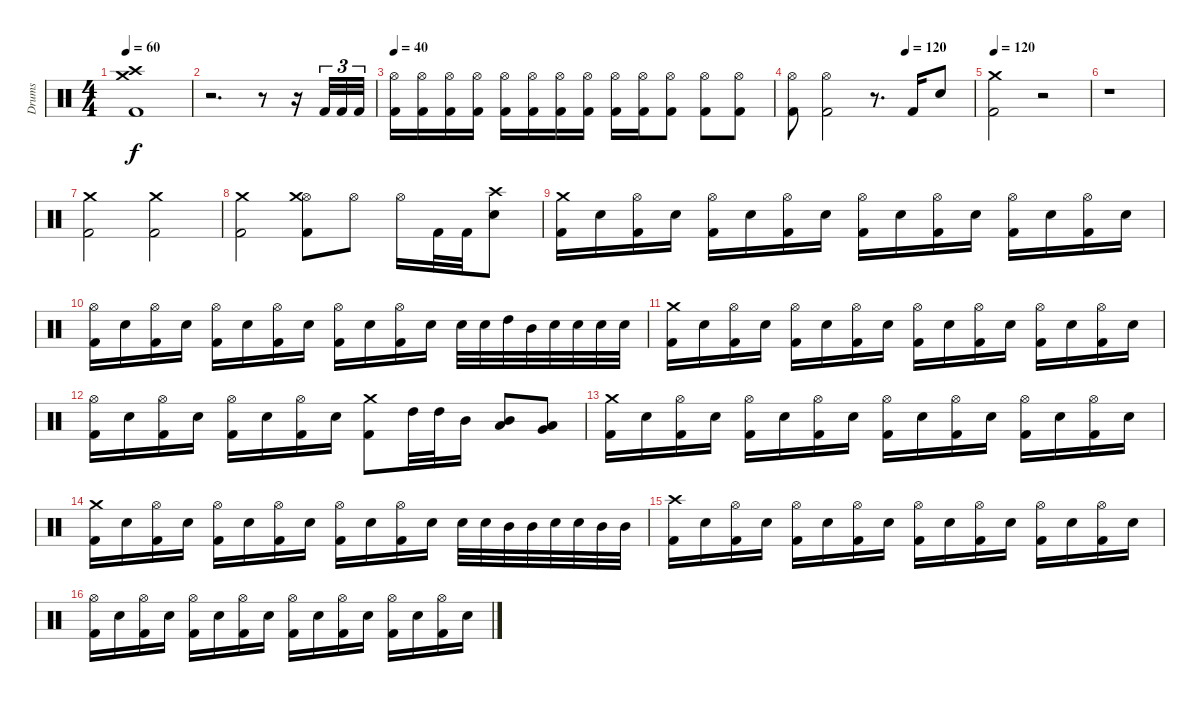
\track ("Drums" "Drums") {instrument percussion}
\staff {score}
\articulation defaults
\ts (4 4)
\tempo 60
\clef neutral
\ks c
("Kick (hit) 2" "Crash high (hit)" "Crash medium (hit)").1{dy f} |
r.2{d} r.8 r.16 "Kick (hit) 2".32{tu (3 2)} "Kick (hit) 2".32{tu (3 2)} "Kick (hit) 2".32{tu (3 2)} |
\tempo 40
("Kick (hit) 2" "Hi-Hat (open)").16 ("Kick (hit) 2" "Hi-Hat (open)").16 ("Kick (hit) 2" "Hi-Hat (open)").16 ("Kick (hit) 2" "Hi-Hat (open)").16 ("Kick (hit) 2" "Hi-Hat (open)").16 ("Kick (hit) 2" "Hi-Hat (open)").16 ("Kick (hit) 2" "Hi-Hat (open)").16 ("Kick (hit) 2" "Hi-Hat (open)").16 ("Kick (hit) 2" "Hi-Hat (open)").16 ("Kick (hit) 2" "Hi-Hat (open)").16 ("Kick (hit) 2" "Hi-Hat (open)").8 ("Kick (hit) 2" "Hi-Hat (open)").8 ("Kick (hit) 2" "Hi-Hat (open)").8 |
\tempo (120 0.625)
("Kick (hit) 2" "Hi-Hat (open)").8 ("Kick (hit) 2" "Hi-Hat (open)").2 r.8{d} "Kick (hit) 2".16 "Electric Snare (hit)".8 |
\tempo 120
("Kick (hit) 2" "Crash medium (hit)").2 r.2 |
r.1 |
("Kick (hit) 2" "Crash medium (hit)").2 ("Kick (hit) 2" "Crash medium (hit)").2 |
("Kick (hit) 2" "Crash medium (hit)").2 ("Kick (hit) 2" "Hi-Hat (open)" "Crash medium (hit)").8 "Hi-Hat (open)".8 "Hi-Hat (open)".16 "Kick (hit) 2".32 "Kick (hit) 2".32 ("Electric Snare (hit)" "Crash high (hit)").8 |
("Kick (hit) 2" "Crash medium (hit)").16 "Electric Snare (hit)".16 ("Kick (hit) 2" "Hi-Hat (open)").16 "Electric Snare (hit)".16 ("Kick (hit) 2" "Hi-Hat (open)").16 "Electric Snare (hit)".16 ("Kick (hit) 2" "Hi-Hat (open)").16 "Electric Snare (hit)".16 ("Kick (hit) 2" "Hi-Hat (open)").16 "Electric Snare (hit)".16 ("Kick (hit) 2" "Hi-Hat (open)").16 "Electric Snare (hit)".16 ("Kick (hit) 2" "Hi-Hat (open)").16 "Electric Snare (hit)".16 ("Kick (hit) 2" "Hi-Hat (open)").16 "Electric Snare (hit)".16 |
("Kick (hit) 2" "Hi-Hat (open)").16 "Electric Snare (hit)".16 ("Kick (hit) 2" "Hi-Hat (open)").16 "Electric Snare (hit)".16 ("Kick (hit) 2" "Hi-Hat (open)").16 "Electric Snare (hit)".16 ("Kick (hit) 2" "Hi-Hat (open)").16 "Electric Snare (hit)".16 ("Kick (hit) 2" "Hi-Hat (open)").16 "Electric Snare (hit)".16 ("Kick (hit) 2" "Hi-Hat (open)").16 "Electric Snare (hit)".16 "Electric Snare (hit)".32 "Electric Snare (hit)".32 "High Tom (hit)".32 "Mid Tom (hit)".32 "Electric Snare (hit)".32 "Electric Snare (hit)".32 "Electric Snare (hit)".32 "Electric Snare (hit)".32 |
("Kick (hit) 2" "Crash medium (hit)").16 "Electric Snare (hit)".16 ("Kick (hit) 2" "Hi-Hat (open)").16 "Electric Snare (hit)".16 ("Kick (hit) 2" "Hi-Hat (open)").16 "Electric Snare (hit)".16 ("Kick (hit) 2" "Hi-Hat (open)").16 "Electric Snare (hit)".16 ("Kick (hit) 2" "Hi-Hat (open)").16 "Electric Snare (hit)".16 ("Kick (hit) 2" "Hi-Hat (open)").16 "Electric Snare (hit)".16 ("Kick (hit) 2" "Hi-Hat (open)").16 "Electric Snare (hit)".16 ("Kick (hit) 2" "Hi-Hat (open)").16 "Electric Snare (hit)".16 |
("Kick (hit) 2" "Hi-Hat (open)").16 "Electric Snare (hit)".16 ("Kick (hit) 2" "Hi-Hat (open)").16 "Electric Snare (hit)".16 ("Kick (hit) 2" "Hi-Hat (open)").16 "Electric Snare (hit)".16 ("Kick (hit) 2" "Hi-Hat (open)").16 "Electric Snare (hit)".16 ("Kick (hit) 2" "Crash medium (hit)").8 "High Tom (hit)".32 "High Tom (hit)".32 "Mid Tom (hit)".16 ("Low Tom (hit)" "Mid Tom (hit)").8 ("Very Low Tom (hit)" "Low Tom (hit)").8 |
("Kick (hit) 2" "Crash medium (hit)").16 "Electric Snare (hit)".16 ("Kick (hit) 2" "Hi-Hat (open)").16 "Electric Snare (hit)".16 ("Kick (hit) 2" "Hi-Hat (open)").16 "Electric Snare (hit)".16 ("Kick (hit) 2" "Hi-Hat (open)").16 "Electric Snare (hit)".16 ("Kick (hit) 2" "Hi-Hat (open)").16 "Electric Snare (hit)".16 ("Kick (hit) 2" "Hi-Hat (open)").16 "Electric Snare (hit)".16 ("Kick (hit) 2" "Hi-Hat (open)").16 "Electric Snare (hit)".16 ("Kick (hit) 2" "Hi-Hat (open)").16 "Electric Snare (hit)".16 |
("Kick (hit) 2" "Crash medium (hit)").16 "Electric Snare (hit)".16 ("Kick (hit) 2" "Hi-Hat (open)").16 "Electric Snare (hit)".16 ("Kick (hit) 2" "Hi-Hat (open)").16 "Electric Snare (hit)".16 ("Kick (hit) 2" "Hi-Hat (open)").16 "Electric Snare (hit)".16 ("Kick (hit) 2" "Hi-Hat (open)").16 "Electric Snare (hit)".16 ("Kick (hit) 2" "Hi-Hat (open)").16 "Electric Snare (hit)".16 "Electric Snare (hit)".32 "Electric Snare (hit)".32 "Mid Tom (hit)".32 "Mid Tom (hit)".32 "Electric Snare (hit)".32 "Electric Snare (hit)".32 "Mid Tom (hit)".32 "Mid Tom (hit)".32 |
("Kick (hit) 2" "Crash high (hit)").16 "Electric Snare (hit)".16 ("Kick (hit) 2" "Hi-Hat (open)").16 "Electric Snare (hit)".16 ("Kick (hit) 2" "Hi-Hat (open)").16 "Electric Snare (hit)".16 ("Kick (hit) 2" "Hi-Hat (open)").16 "Electric Snare (hit)".16 ("Kick (hit) 2" "Hi-Hat (open)").16 "Electric Snare (hit)".16 ("Kick (hit) 2" "Hi-Hat (open)").16 "Electric Snare (hit)".16 ("Kick (hit) 2" "Hi-Hat (open)").16 "Electric Snare (hit)".16 ("Kick (hit) 2" "Hi-Hat (open)").16 "Electric Snare (hit)".16 |
("Kick (hit) 2" "Hi-Hat (open)").16 "Electric Snare (hit)".16 ("Kick (hit) 2" "Hi-Hat (open)").16 "Electric Snare (hit)".16 ("Kick (hit) 2" "Hi-Hat (open)").16 "Electric Snare (hit)".16 ("Kick (hit) 2" "Hi-Hat (open)").16 "Electric Snare (hit)".16 ("Kick (hit) 2" "Hi-Hat (open)").16 "Electric Snare (hit)".16 ("Kick (hit) 2" "Hi-Hat (open)").16 "Electric Snare (hit)".16 ("Kick (hit) 2" "Hi-Hat (open)").16 "Electric Snare (hit)".16 ("Kick (hit) 2" "Hi-Hat (open)").16 "Electric Snare (hit)".16
